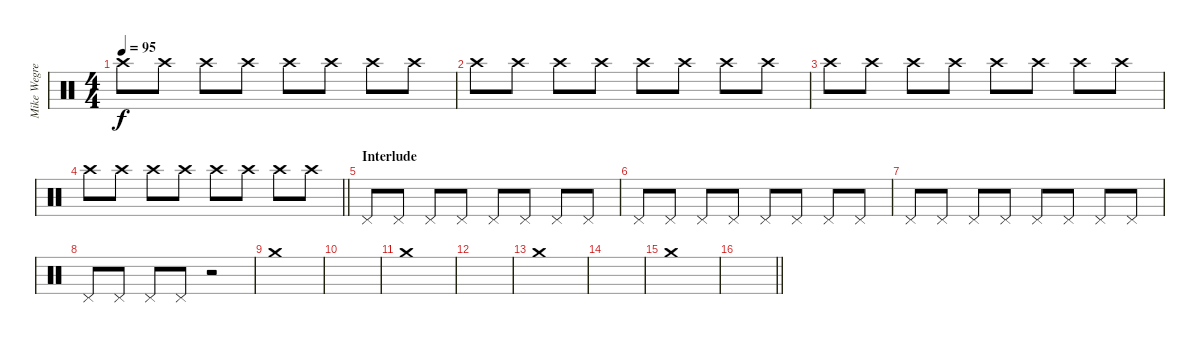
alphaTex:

\track ("Mike Wegren" "Mike Wegre") {instrument percussion}
\staff {score}
\articulation defaults
\ts (4 4)
\tempo 95
\clef neutral
\ks c "Crash high (hit)".8{dy f} "Crash high (hit)".8 "Crash high (hit)".8 "Crash high (hit)".8 "Crash high (hit)".8 "Crash high (hit)".8 "Crash high (hit)".8 "Crash high (hit)".8
|
"Crash high (hit)".8 "Crash high (hit)".8 "Crash high (hit)".8 "Crash high (hit)".8 "Crash high (hit)".8 "Crash high (hit)".8 "Crash high (hit)".8 "Crash high (hit)".8 |
"Crash high (hit)".8 "Crash high (hit)".8 "Crash high (hit)".8 "Crash high (hit)".8 "Crash high (hit)".8 "Crash high (hit)".8 "Crash high (hit)".8 "Crash high (hit)".8 |
\barLineRight lightlight "Crash high (hit)".8 "Crash high (hit)".8 "Crash high (hit)".8 "Crash high (hit)".8 "Crash high (hit)".8 "Crash high (hit)".8 "Crash high (hit)".8 "Crash high (hit)".8
|
\section ("" "Interlude")
"Pedal Hi-Hat (hit)".8 "Pedal Hi-Hat (hit)".8 "Pedal Hi-Hat (hit)".8 "Pedal Hi-Hat (hit)".8 "Pedal Hi-Hat (hit)".8 "Pedal Hi-Hat (hit)".8 "Pedal Hi-Hat (hit)".8 "Pedal Hi-Hat (hit)".8 |
"Pedal Hi-Hat (hit)".8 "Pedal Hi-Hat (hit)".8 "Pedal Hi-Hat (hit)".8 "Pedal Hi-Hat (hit)".8 "Pedal Hi-Hat (hit)".8 "Pedal Hi-Hat (hit)".8 "Pedal Hi-Hat (hit)".8 "Pedal Hi-Hat (hit)".8 |
"Pedal Hi-Hat (hit)".8 "Pedal Hi-Hat (hit)".8 "Pedal Hi-Hat (hit)".8 "Pedal Hi-Hat (hit)".8 "Pedal Hi-Hat (hit)".8 "Pedal Hi-Hat (hit)".8 "Pedal Hi-Hat (hit)".8 "Pedal Hi-Hat (hit)".8 |
"Pedal Hi-Hat (hit)".8 "Pedal Hi-Hat (hit)".8 "Pedal Hi-Hat (hit)".8 "Pedal Hi-Hat (hit)".8 r.2 |
"Crash medium (hit)".1 |
|
"Crash medium (hit)".1 |
|
"Crash medium (hit)".1 |
|
"Crash medium (hit)".1 |
\barLineRight lightlight
